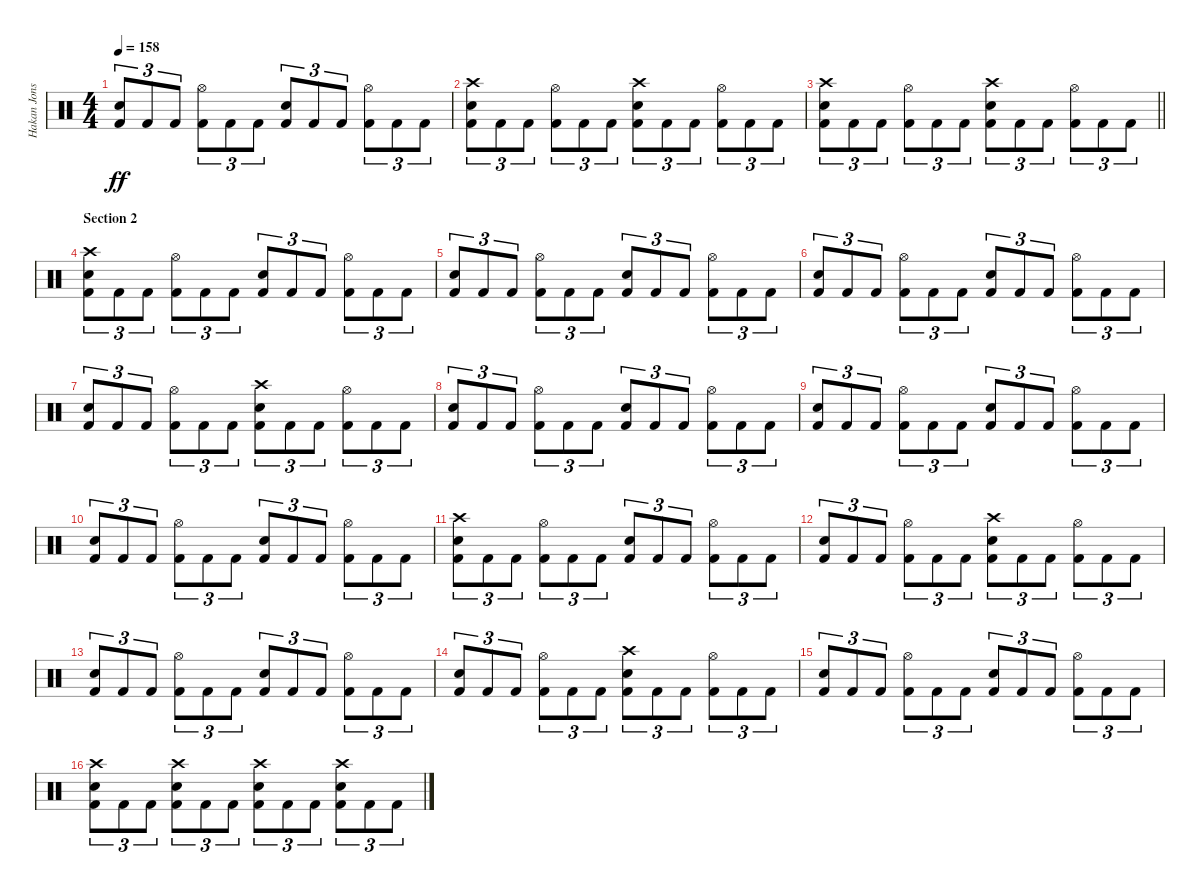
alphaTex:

\track ("Hakan Jonsson" "Hakan Jons") {instrument percussion}
\staff {score}
\articulation defaults
\ts (4 4)
\tempo 158
\clef neutral
\ks c
("Electric Snare (hit)" "Kick (hit) 2").8{tu (3 2) dy ff} "Kick (hit) 2".8{tu (3 2)} "Kick (hit) 2".8{tu (3 2)} ("Hi-Hat (open)" "Kick (hit) 2").8{tu (3 2)} "Kick (hit) 2".8{tu (3 2)} "Kick (hit) 2".8{tu (3 2)} ("Electric Snare (hit)" "Kick (hit) 2").8{tu (3 2)} "Kick (hit) 2".8{tu (3 2)} "Kick (hit) 2".8{tu (3 2)} ("Hi-Hat (open)" "Kick (hit) 2").8{tu (3 2)} "Kick (hit) 2".8{tu (3 2)} "Kick (hit) 2".8{tu (3 2)} |
("Crash high (hit)" "Electric Snare (hit)" "Kick (hit) 2").8{tu (3 2)} "Kick (hit) 2".8{tu (3 2)} "Kick (hit) 2".8{tu (3 2)} ("Hi-Hat (open)" "Kick (hit) 2").8{tu (3 2)} "Kick (hit) 2".8{tu (3 2)} "Kick (hit) 2".8{tu (3 2)} ("Crash high (hit)" "Electric Snare (hit)" "Kick (hit) 2").8{tu (3 2)} "Kick (hit) 2".8{tu (3 2)} "Kick (hit) 2".8{tu (3 2)} ("Hi-Hat (open)" "Kick (hit) 2").8{tu (3 2)} "Kick (hit) 2".8{tu (3 2)} "Kick (hit) 2".8{tu (3 2)} |
\barLineRight lightlight
("Crash high (hit)" "Electric Snare (hit)" "Kick (hit) 2").8{tu (3 2)} "Kick (hit) 2".8{tu (3 2)} "Kick (hit) 2".8{tu (3 2)} ("Hi-Hat (open)" "Kick (hit) 2").8{tu (3 2)} "Kick (hit) 2".8{tu (3 2)} "Kick (hit) 2".8{tu (3 2)} ("Crash high (hit)" "Electric Snare (hit)" "Kick (hit) 2").8{tu (3 2)} "Kick (hit) 2".8{tu (3 2)} "Kick (hit) 2".8{tu (3 2)} ("Hi-Hat (open)" "Kick (hit) 2").8{tu (3 2)} "Kick (hit) 2".8{tu (3 2)} "Kick (hit) 2".8{tu (3 2)} |
\section ("" "Section 2")
("Crash high (hit)" "Electric Snare (hit)" "Kick (hit) 2").8{tu (3 2)} "Kick (hit) 2".8{tu (3 2)} "Kick (hit) 2".8{tu (3 2)} ("Hi-Hat (open)" "Kick (hit) 2").8{tu (3 2)} "Kick (hit) 2".8{tu (3 2)} "Kick (hit) 2".8{tu (3 2)} ("Electric Snare (hit)" "Kick (hit) 2").8{tu (3 2)} "Kick (hit) 2".8{tu (3 2)} "Kick (hit) 2".8{tu (3 2)} ("Hi-Hat (open)" "Kick (hit) 2").8{tu (3 2)} "Kick (hit) 2".8{tu (3 2)} "Kick (hit) 2".8{tu (3 2)} |
("Electric Snare (hit)" "Kick (hit) 2").8{tu (3 2)} "Kick (hit) 2".8{tu (3 2)} "Kick (hit) 2".8{tu (3 2)} ("Hi-Hat (open)" "Kick (hit) 2").8{tu (3 2)} "Kick (hit) 2".8{tu (3 2)} "Kick (hit) 2".8{tu (3 2)} ("Electric Snare (hit)" "Kick (hit) 2").8{tu (3 2)} "Kick (hit) 2".8{tu (3 2)} "Kick (hit) 2".8{tu (3 2)} ("Hi-Hat (open)" "Kick (hit) 2").8{tu (3 2)} "Kick (hit) 2".8{tu (3 2)} "Kick (hit) 2".8{tu (3 2)} |
("Electric Snare (hit)" "Kick (hit) 2").8{tu (3 2)} "Kick (hit) 2".8{tu (3 2)} "Kick (hit) 2".8{tu (3 2)} ("Hi-Hat (open)" "Kick (hit) 2").8{tu (3 2)} "Kick (hit) 2".8{tu (3 2)} "Kick (hit) 2".8{tu (3 2)} ("Electric Snare (hit)" "Kick (hit) 2").8{tu (3 2)} "Kick (hit) 2".8{tu (3 2)} "Kick (hit) 2".8{tu (3 2)} ("Hi-Hat (open)" "Kick (hit) 2").8{tu (3 2)} "Kick (hit) 2".8{tu (3 2)} "Kick (hit) 2".8{tu (3 2)} |
("Electric Snare (hit)" "Kick (hit) 2").8{tu (3 2)} "Kick (hit) 2".8{tu (3 2)} "Kick (hit) 2".8{tu (3 2)} ("Hi-Hat (open)" "Kick (hit) 2").8{tu (3 2)} "Kick (hit) 2".8{tu (3 2)} "Kick (hit) 2".8{tu (3 2)} ("Crash high (hit)" "Electric Snare (hit)" "Kick (hit) 2").8{tu (3 2)} "Kick (hit) 2".8{tu (3 2)} "Kick (hit) 2".8{tu (3 2)} ("Hi-Hat (open)" "Kick (hit) 2").8{tu (3 2)} "Kick (hit) 2".8{tu (3 2)} "Kick (hit) 2".8{tu (3 2)} |
("Electric Snare (hit)" "Kick (hit) 2").8{tu (3 2)} "Kick (hit) 2".8{tu (3 2)} "Kick (hit) 2".8{tu (3 2)} ("Hi-Hat (open)" "Kick (hit) 2").8{tu (3 2)} "Kick (hit) 2".8{tu (3 2)} "Kick (hit) 2".8{tu (3 2)} ("Electric Snare (hit)" "Kick (hit) 2").8{tu (3 2)} "Kick (hit) 2".8{tu (3 2)} "Kick (hit) 2".8{tu (3 2)} ("Hi-Hat (open)" "Kick (hit) 2").8{tu (3 2)} "Kick (hit) 2".8{tu (3 2)} "Kick (hit) 2".8{tu (3 2)} |
("Electric Snare (hit)" "Kick (hit) 2").8{tu (3 2)} "Kick (hit) 2".8{tu (3 2)} "Kick (hit) 2".8{tu (3 2)} ("Hi-Hat (open)" "Kick (hit) 2").8{tu (3 2)} "Kick (hit) 2".8{tu (3 2)} "Kick (hit) 2".8{tu (3 2)} ("Electric Snare (hit)" "Kick (hit) 2").8{tu (3 2)} "Kick (hit) 2".8{tu (3 2)} "Kick (hit) 2".8{tu (3 2)} ("Hi-Hat (open)" "Kick (hit) 2").8{tu (3 2)} "Kick (hit) 2".8{tu (3 2)} "Kick (hit) 2".8{tu (3 2)} |
("Electric Snare (hit)" "Kick (hit) 2").8{tu (3 2)} "Kick (hit) 2".8{tu (3 2)} "Kick (hit) 2".8{tu (3 2)} ("Hi-Hat (open)" "Kick (hit) 2").8{tu (3 2)} "Kick (hit) 2".8{tu (3 2)} "Kick (hit) 2".8{tu (3 2)} ("Electric Snare (hit)" "Kick (hit) 2").8{tu (3 2)} "Kick (hit) 2".8{tu (3 2)} "Kick (hit) 2".8{tu (3 2)} ("Hi-Hat (open)" "Kick (hit) 2").8{tu (3 2)} "Kick (hit) 2".8{tu (3 2)} "Kick (hit) 2".8{tu (3 2)} |
("Crash high (hit)" "Electric Snare (hit)" "Kick (hit) 2").8{tu (3 2)} "Kick (hit) 2".8{tu (3 2)} "Kick (hit) 2".8{tu (3 2)} ("Hi-Hat (open)" "Kick (hit) 2").8{tu (3 2)} "Kick (hit) 2".8{tu (3 2)} "Kick (hit) 2".8{tu (3 2)} ("Electric Snare (hit)" "Kick (hit) 2").8{tu (3 2)} "Kick (hit) 2".8{tu (3 2)} "Kick (hit) 2".8{tu (3 2)} ("Hi-Hat (open)" "Kick (hit) 2").8{tu (3 2)} "Kick (hit) 2".8{tu (3 2)} "Kick (hit) 2".8{tu (3 2)} |
("Electric Snare (hit)" "Kick (hit) 2").8{tu (3 2)} "Kick (hit) 2".8{tu (3 2)} "Kick (hit) 2".8{tu (3 2)} ("Hi-Hat (open)" "Kick (hit) 2").8{tu (3 2)} "Kick (hit) 2".8{tu (3 2)} "Kick (hit) 2".8{tu (3 2)} ("Crash high (hit)" "Electric Snare (hit)" "Kick (hit) 2").8{tu (3 2)} "Kick (hit) 2".8{tu (3 2)} "Kick (hit) 2".8{tu (3 2)} ("Hi-Hat (open)" "Kick (hit) 2").8{tu (3 2)} "Kick (hit) 2".8{tu (3 2)} "Kick (hit) 2".8{tu (3 2)} |
("Electric Snare (hit)" "Kick (hit) 2").8{tu (3 2)} "Kick (hit) 2".8{tu (3 2)} "Kick (hit) 2".8{tu (3 2)} ("Hi-Hat (open)" "Kick (hit) 2").8{tu (3 2)} "Kick (hit) 2".8{tu (3 2)} "Kick (hit) 2".8{tu (3 2)} ("Electric Snare (hit)" "Kick (hit) 2").8{tu (3 2)} "Kick (hit) 2".8{tu (3 2)} "Kick (hit) 2".8{tu (3 2)} ("Hi-Hat (open)" "Kick (hit) 2").8{tu (3 2)} "Kick (hit) 2".8{tu (3 2)} "Kick (hit) 2".8{tu (3 2)} |
("Electric Snare (hit)" "Kick (hit) 2").8{tu (3 2)} "Kick (hit) 2".8{tu (3 2)} "Kick (hit) 2".8{tu (3 2)} ("Hi-Hat (open)" "Kick (hit) 2").8{tu (3 2)} "Kick (hit) 2".8{tu (3 2)} "Kick (hit) 2".8{tu (3 2)} ("Crash high (hit)" "Electric Snare (hit)" "Kick (hit) 2").8{tu (3 2)} "Kick (hit) 2".8{tu (3 2)} "Kick (hit) 2".8{tu (3 2)} ("Hi-Hat (open)" "Kick (hit) 2").8{tu (3 2)} "Kick (hit) 2".8{tu (3 2)} "Kick (hit) 2".8{tu (3 2)} |
("Electric Snare (hit)" "Kick (hit) 2").8{tu (3 2)} "Kick (hit) 2".8{tu (3 2)} "Kick (hit) 2".8{tu (3 2)} ("Hi-Hat (open)" "Kick (hit) 2").8{tu (3 2)} "Kick (hit) 2".8{tu (3 2)} "Kick (hit) 2".8{tu (3 2)} ("Electric Snare (hit)" "Kick (hit) 2").8{tu (3 2)} "Kick (hit) 2".8{tu (3 2)} "Kick (hit) 2".8{tu (3 2)} ("Hi-Hat (open)" "Kick (hit) 2").8{tu (3 2)} "Kick (hit) 2".8{tu (3 2)} "Kick (hit) 2".8{tu (3 2)} |
("Crash high (hit)" "Electric Snare (hit)" "Kick (hit) 2").8{tu (3 2)} "Kick (hit) 2".8{tu (3 2)} "Kick (hit) 2".8{tu (3 2)} ("Crash high (hit)" "Electric Snare (hit)" "Kick (hit) 2").8{tu (3 2)} "Kick (hit) 2".8{tu (3 2)} "Kick (hit) 2".8{tu (3 2)} ("Crash high (hit)" "Electric Snare (hit)" "Kick (hit) 2").8{tu (3 2)} "Kick (hit) 2".8{tu (3 2)} "Kick (hit) 2".8{tu (3 2)} ("Crash high (hit)" "Electric Snare (hit)" "Kick (hit) 2").8{tu (3 2)} "Kick (hit) 2".8{tu (3 2)} "Kick (hit) 2".8{tu (3 2)}
